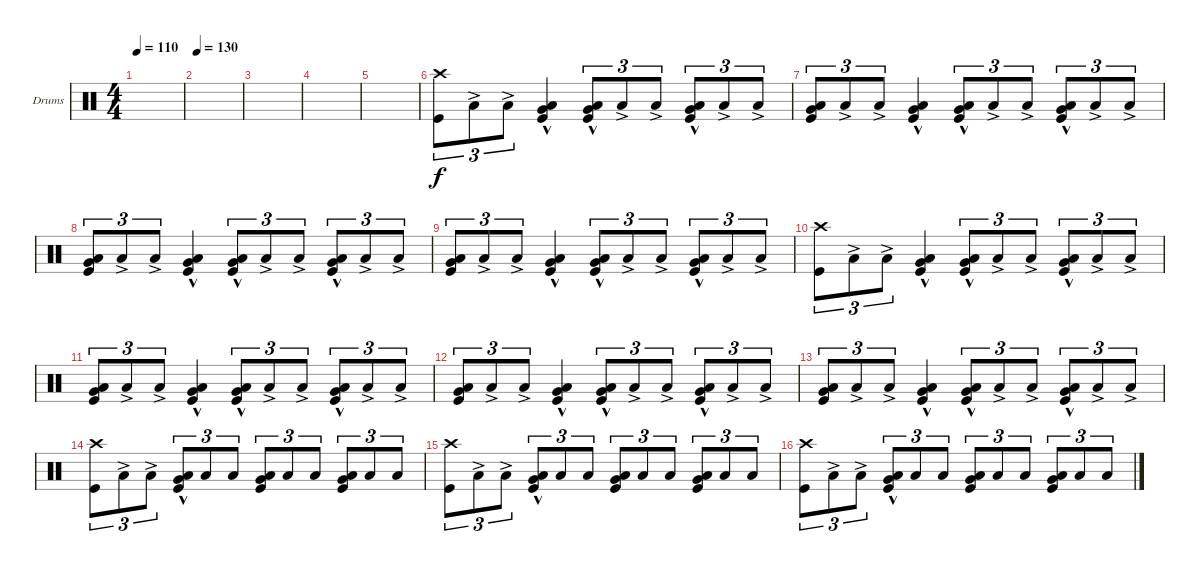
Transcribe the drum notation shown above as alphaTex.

\bracketExtendMode groupsimilarinstruments
\firstSystemTrackNameOrientation horizontal
\otherSystemsTrackNameOrientation horizontal
\track ("Drumkit" "Drums") {instrument percussion}
\staff {score}
\articulation defaults
\ts (4 4)
\tempo 110
\clef neutral
\ks c
|
\tempo 130
|
|
|
|
("Crash high (hit)" "Kick (hit)").8{tu (3 2)} "Low Tom (hit)"{ac}.8{tu (3 2)} "Low Tom (hit)"{ac}.8{tu (3 2)} ("Low Tom (hit)"{hac} "Kick (hit)" "Very Low Tom (hit)").4 ("Low Tom (hit)"{hac} "Kick (hit)" "Very Low Tom (hit)").8{tu (3 2)} "Low Tom (hit)"{ac}.8{tu (3 2)} "Low Tom (hit)"{ac}.8{tu (3 2)} ("Low Tom (hit)"{hac} "Kick (hit)" "Very Low Tom (hit)").8{tu (3 2)} "Low Tom (hit)"{ac}.8{tu (3 2)} "Low Tom (hit)"{ac}.8{tu (3 2)} |
("Kick (hit)" "Low Tom (hit)" "Very Low Tom (hit)").8{tu (3 2)} "Low Tom (hit)"{ac}.8{tu (3 2)} "Low Tom (hit)"{ac}.8{tu (3 2)} ("Low Tom (hit)"{hac} "Kick (hit)" "Very Low Tom (hit)").4 ("Low Tom (hit)"{hac} "Kick (hit)" "Very Low Tom (hit)").8{tu (3 2)} "Low Tom (hit)"{ac}.8{tu (3 2)} "Low Tom (hit)"{ac}.8{tu (3 2)} ("Low Tom (hit)"{hac} "Kick (hit)" "Very Low Tom (hit)").8{tu (3 2)} "Low Tom (hit)"{ac}.8{tu (3 2)} "Low Tom (hit)"{ac}.8{tu (3 2)} |
("Kick (hit)" "Low Tom (hit)" "Very Low Tom (hit)").8{tu (3 2)} "Low Tom (hit)"{ac}.8{tu (3 2)} "Low Tom (hit)"{ac}.8{tu (3 2)} ("Low Tom (hit)"{hac} "Kick (hit)" "Very Low Tom (hit)").4 ("Low Tom (hit)"{hac} "Kick (hit)" "Very Low Tom (hit)").8{tu (3 2)} "Low Tom (hit)"{ac}.8{tu (3 2)} "Low Tom (hit)"{ac}.8{tu (3 2)} ("Low Tom (hit)"{hac} "Kick (hit)" "Very Low Tom (hit)").8{tu (3 2)} "Low Tom (hit)"{ac}.8{tu (3 2)} "Low Tom (hit)"{ac}.8{tu (3 2)} |
("Kick (hit)" "Low Tom (hit)" "Very Low Tom (hit)").8{tu (3 2)} "Low Tom (hit)"{ac}.8{tu (3 2)} "Low Tom (hit)"{ac}.8{tu (3 2)} ("Low Tom (hit)"{hac} "Kick (hit)" "Very Low Tom (hit)").4 ("Low Tom (hit)"{hac} "Kick (hit)" "Very Low Tom (hit)").8{tu (3 2)} "Low Tom (hit)"{ac}.8{tu (3 2)} "Low Tom (hit)"{ac}.8{tu (3 2)} ("Low Tom (hit)"{hac} "Kick (hit)" "Very Low Tom (hit)").8{tu (3 2)} "Low Tom (hit)"{ac}.8{tu (3 2)} "Low Tom (hit)"{ac}.8{tu (3 2)} |
("Crash high (hit)" "Kick (hit)").8{tu (3 2)} "Low Tom (hit)"{ac}.8{tu (3 2)} "Low Tom (hit)"{ac}.8{tu (3 2)} ("Low Tom (hit)"{hac} "Kick (hit)" "Very Low Tom (hit)").4 ("Low Tom (hit)"{hac} "Kick (hit)" "Very Low Tom (hit)").8{tu (3 2)} "Low Tom (hit)"{ac}.8{tu (3 2)} "Low Tom (hit)"{ac}.8{tu (3 2)} ("Low Tom (hit)"{hac} "Kick (hit)" "Very Low Tom (hit)").8{tu (3 2)} "Low Tom (hit)"{ac}.8{tu (3 2)} "Low Tom (hit)"{ac}.8{tu (3 2)} |
("Kick (hit)" "Low Tom (hit)" "Very Low Tom (hit)").8{tu (3 2)} "Low Tom (hit)"{ac}.8{tu (3 2)} "Low Tom (hit)"{ac}.8{tu (3 2)} ("Low Tom (hit)"{hac} "Kick (hit)" "Very Low Tom (hit)").4 ("Low Tom (hit)"{hac} "Kick (hit)" "Very Low Tom (hit)").8{tu (3 2)} "Low Tom (hit)"{ac}.8{tu (3 2)} "Low Tom (hit)"{ac}.8{tu (3 2)} ("Low Tom (hit)"{hac} "Kick (hit)" "Very Low Tom (hit)").8{tu (3 2)} "Low Tom (hit)"{ac}.8{tu (3 2)} "Low Tom (hit)"{ac}.8{tu (3 2)} |
("Kick (hit)" "Low Tom (hit)" "Very Low Tom (hit)").8{tu (3 2)} "Low Tom (hit)"{ac}.8{tu (3 2)} "Low Tom (hit)"{ac}.8{tu (3 2)} ("Low Tom (hit)"{hac} "Kick (hit)" "Very Low Tom (hit)").4 ("Low Tom (hit)"{hac} "Kick (hit)" "Very Low Tom (hit)").8{tu (3 2)} "Low Tom (hit)"{ac}.8{tu (3 2)} "Low Tom (hit)"{ac}.8{tu (3 2)} ("Low Tom (hit)"{hac} "Kick (hit)" "Very Low Tom (hit)").8{tu (3 2)} "Low Tom (hit)"{ac}.8{tu (3 2)} "Low Tom (hit)"{ac}.8{tu (3 2)} |
("Kick (hit)" "Low Tom (hit)" "Very Low Tom (hit)").8{tu (3 2)} "Low Tom (hit)"{ac}.8{tu (3 2)} "Low Tom (hit)"{ac}.8{tu (3 2)} ("Low Tom (hit)"{hac} "Kick (hit)" "Very Low Tom (hit)").4 ("Low Tom (hit)"{hac} "Kick (hit)" "Very Low Tom (hit)").8{tu (3 2)} "Low Tom (hit)"{ac}.8{tu (3 2)} "Low Tom (hit)"{ac}.8{tu (3 2)} ("Low Tom (hit)"{hac} "Kick (hit)" "Very Low Tom (hit)").8{tu (3 2)} "Low Tom (hit)"{ac}.8{tu (3 2)} "Low Tom (hit)"{ac}.8{tu (3 2)} |
("Crash high (hit)" "Kick (hit)").8{tu (3 2)} "Low Tom (hit)"{ac}.8{tu (3 2)} "Low Tom (hit)"{ac}.8{tu (3 2)} ("Low Tom (hit)"{hac} "Kick (hit)" "Very Low Tom (hit)").8{tu (3 2)} "Low Tom (hit)".8{tu (3 2)} "Low Tom (hit)".8{tu (3 2)} ("Kick (hit)" "Very Low Tom (hit)" "Low Tom (hit)").8{tu (3 2)} "Low Tom (hit)".8{tu (3 2)} "Low Tom (hit)".8{tu (3 2)} ("Kick (hit)" "Very Low Tom (hit)" "Low Tom (hit)").8{tu (3 2)} "Low Tom (hit)".8{tu (3 2)} "Low Tom (hit)".8{tu (3 2)} |
("Crash high (hit)" "Kick (hit)").8{tu (3 2)} "Low Tom (hit)"{ac}.8{tu (3 2)} "Low Tom (hit)"{ac}.8{tu (3 2)} ("Low Tom (hit)"{hac} "Kick (hit)" "Very Low Tom (hit)").8{tu (3 2)} "Low Tom (hit)".8{tu (3 2)} "Low Tom (hit)".8{tu (3 2)} ("Kick (hit)" "Very Low Tom (hit)" "Low Tom (hit)").8{tu (3 2)} "Low Tom (hit)".8{tu (3 2)} "Low Tom (hit)".8{tu (3 2)} ("Kick (hit)" "Very Low Tom (hit)" "Low Tom (hit)").8{tu (3 2)} "Low Tom (hit)".8{tu (3 2)} "Low Tom (hit)".8{tu (3 2)} |
("Crash high (hit)" "Kick (hit)").8{tu (3 2)} "Low Tom (hit)"{ac}.8{tu (3 2)} "Low Tom (hit)"{ac}.8{tu (3 2)} ("Low Tom (hit)"{hac} "Kick (hit)" "Very Low Tom (hit)").8{tu (3 2)} "Low Tom (hit)".8{tu (3 2)} "Low Tom (hit)".8{tu (3 2)} ("Kick (hit)" "Very Low Tom (hit)" "Low Tom (hit)").8{tu (3 2)} "Low Tom (hit)".8{tu (3 2)} "Low Tom (hit)".8{tu (3 2)} ("Kick (hit)" "Very Low Tom (hit)" "Low Tom (hit)").8{tu (3 2)} "Low Tom (hit)".8{tu (3 2)} "Low Tom (hit)".8{tu (3 2)}
